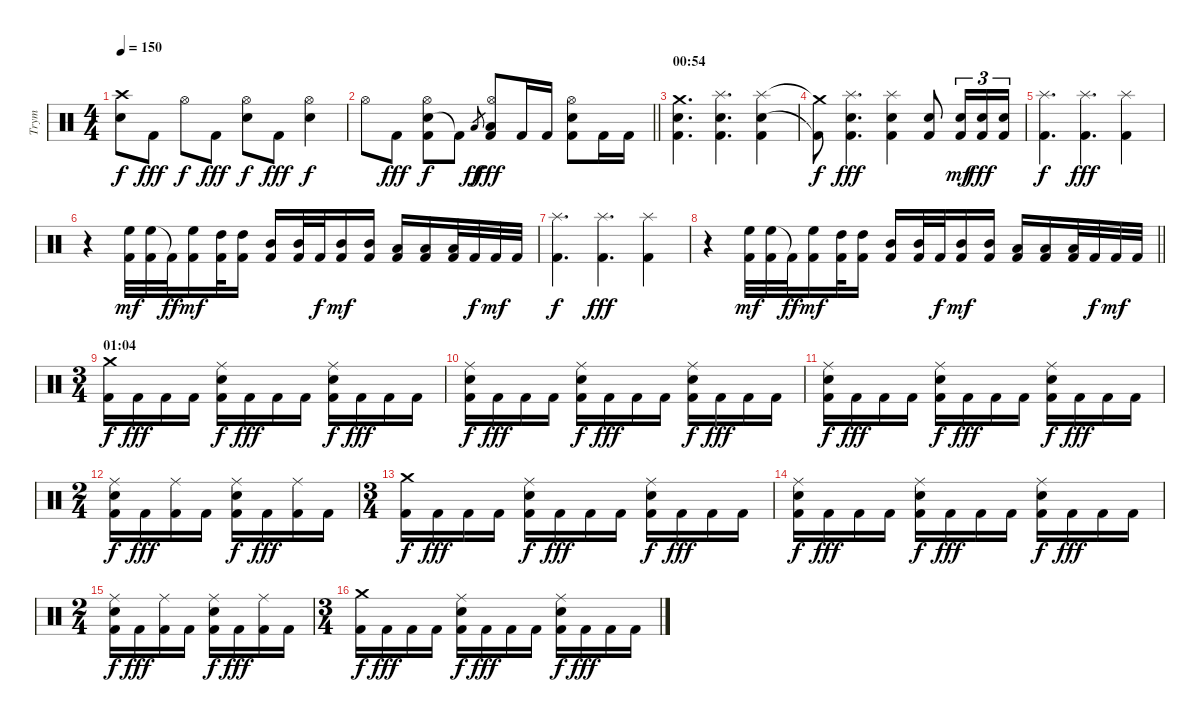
\track ("Trym" "Trym") {instrument percussion}
\staff {score}
\articulation defaults
\ts (4 4)
\tempo 150
\clef neutral
\ks c
("Crash high (hit)" "Snare (hit) 2").8{dy f} "Kick (hit) 2".8{dy fff} "Hi-Hat (open)".8{dy f} "Kick (hit) 2".8{dy fff} ("Snare (hit) 2" "Hi-Hat (open)").8{dy f} "Kick (hit) 2".8{dy fff} ("Snare (hit) 2" "Hi-Hat (open)").4{dy f} |
\barLineRight lightlight "Hi-Hat (open)".8 "Kick (hit) 2".8{dy fff}
("Snare (hit) 2" "Hi-Hat (open)" "Kick (hit) 2").8{dy f} "Kick (hit) 2"{t}.8 "Low Tom (hit)".8{gr dy ff} ("Low Tom (hit)" "Hi-Hat (open)" "Kick (hit) 2").8{dy fff} "Kick (hit) 2".16 "Kick (hit) 2".16 ("Snare (hit) 2" "Hi-Hat (open)" "Kick (hit) 2").8 "Kick (hit) 2".16 "Kick (hit) 2".16 |
\section ("" "00:54")
("Crash medium (hit)" "Snare (hit) 2" "Kick (hit) 2").4{d} ("Splash (hit)" "Snare (hit) 2" "Kick (hit) 2").4{d} ("Splash (hit)" "Snare (hit) 2" "Kick (hit) 2").4 |
("Crash medium (hit)"{t} "Kick (hit) 2"{t}).8{dy f} ("Splash (hit)" "Snare (hit) 2" "Kick (hit) 2").4{d dy fff} ("Splash (hit)" "Snare (hit) 2" "Kick (hit) 2").4 ("Snare (hit) 2" "Kick (hit) 2").8 ("Snare (hit) 2" "Kick (hit) 2").16{tu (3 2) dy mf} ("Snare (hit) 2" "Kick (hit) 2").16{tu (3 2) dy fff} ("Snare (hit) 2" "Kick (hit) 2").16{tu (3 2)} |
("Splash (hit)" "Kick (hit) 2").4{d dy f} ("Splash (hit)" "Kick (hit) 2").4{d dy fff} ("Splash (hit)" "Kick (hit) 2").4 |
r.4 ("High Floor Tom (hit)" "Kick (hit) 2").32{dy mf} ("High Floor Tom (hit)" "Kick (hit) 2").32 "Kick (hit) 2"{t}.32{dy ff} ("High Floor Tom (hit)" "Kick (hit) 2").16{dy mf} ("High Tom (hit)" "Kick (hit) 2").32 ("High Tom (hit)" "Kick (hit) 2").16 ("Mid Tom (hit)" "Kick (hit) 2").16 ("Mid Tom (hit)" "Kick (hit) 2").32 "Kick (hit) 2".32{dy f} ("Mid Tom (hit)" "Kick (hit) 2").16{dy mf} ("Mid Tom (hit)" "Kick (hit) 2").16 ("Low Tom (hit)" "Kick (hit) 2").16 ("Low Tom (hit)" "Kick (hit) 2").16 ("Low Tom (hit)" "Kick (hit) 2").32 "Kick (hit) 2".32{dy f} "Kick (hit) 2".32{dy mf} "Kick (hit) 2".32 |
("Splash (hit)" "Kick (hit) 2").4{d dy f} ("Splash (hit)" "Kick (hit) 2").4{d dy fff} ("Splash (hit)" "Kick (hit) 2").4 |
\barLineRight lightlight
r.4 ("High Floor Tom (hit)" "Kick (hit) 2").32{dy mf} ("High Floor Tom (hit)" "Kick (hit) 2").32 "Kick (hit) 2"{t}.32{dy ff} ("High Floor Tom (hit)" "Kick (hit) 2").16{dy mf} ("High Tom (hit)" "Kick (hit) 2").32 ("High Tom (hit)" "Kick (hit) 2").16 ("Mid Tom (hit)" "Kick (hit) 2").16 ("Mid Tom (hit)" "Kick (hit) 2").32 "Kick (hit) 2".32{dy f} ("Mid Tom (hit)" "Kick (hit) 2").16{dy mf} ("Mid Tom (hit)" "Kick (hit) 2").16 ("Low Tom (hit)" "Kick (hit) 2").16 ("Low Tom (hit)" "Kick (hit) 2").16 ("Low Tom (hit)" "Kick (hit) 2").32 "Kick (hit) 2".32{dy f} "Kick (hit) 2".32{dy mf} "Kick (hit) 2".32 |
\ts (3 4)
\section ("" "01:04")
("Crash medium (hit)" "Kick (hit) 2").16{dy f} "Kick (hit) 2".16{dy fff} "Kick (hit) 2".16 "Kick (hit) 2".16 ("Snare (hit) 2" "Ride (middle)" "Kick (hit) 2").16{dy f} "Kick (hit) 2".16{dy fff} "Kick (hit) 2".16 "Kick (hit) 2".16 ("Snare (hit) 2" "Ride (middle)" "Kick (hit) 2").16{dy f} "Kick (hit) 2".16{dy fff} "Kick (hit) 2".16 "Kick (hit) 2".16 |
("Snare (hit) 2" "Ride (middle)" "Kick (hit) 2").16{dy f} "Kick (hit) 2".16{dy fff} "Kick (hit) 2".16 "Kick (hit) 2".16 ("Snare (hit) 2" "Ride (middle)" "Kick (hit) 2").16{dy f} "Kick (hit) 2".16{dy fff} "Kick (hit) 2".16 "Kick (hit) 2".16 ("Snare (hit) 2" "Ride (middle)" "Kick (hit) 2").16{dy f} "Kick (hit) 2".16{dy fff} "Kick (hit) 2".16 "Kick (hit) 2".16 |
("Snare (hit) 2" "Ride (middle)" "Kick (hit) 2").16{dy f} "Kick (hit) 2".16{dy fff} "Kick (hit) 2".16 "Kick (hit) 2".16 ("Snare (hit) 2" "Ride (middle)" "Kick (hit) 2").16{dy f} "Kick (hit) 2".16{dy fff} "Kick (hit) 2".16 "Kick (hit) 2".16 ("Snare (hit) 2" "Ride (middle)" "Kick (hit) 2").16{dy f} "Kick (hit) 2".16{dy fff} "Kick (hit) 2".16 "Kick (hit) 2".16 |
\ts (2 4)
("Snare (hit) 2" "Ride (middle)" "Kick (hit) 2").16{dy f} "Kick (hit) 2".16{dy fff} ("Ride (middle)" "Kick (hit) 2").16 "Kick (hit) 2".16 ("Snare (hit) 2" "Ride (middle)" "Kick (hit) 2").16{dy f} "Kick (hit) 2".16{dy fff} ("Ride (middle)" "Kick (hit) 2").16 "Kick (hit) 2".16 |
\ts (3 4)
("Crash medium (hit)" "Kick (hit) 2").16{dy f} "Kick (hit) 2".16{dy fff} "Kick (hit) 2".16 "Kick (hit) 2".16 ("Snare (hit) 2" "Ride (middle)" "Kick (hit) 2").16{dy f} "Kick (hit) 2".16{dy fff} "Kick (hit) 2".16 "Kick (hit) 2".16 ("Snare (hit) 2" "Ride (middle)" "Kick (hit) 2").16{dy f} "Kick (hit) 2".16{dy fff} "Kick (hit) 2".16 "Kick (hit) 2".16 |
("Snare (hit) 2" "Ride (middle)" "Kick (hit) 2").16{dy f} "Kick (hit) 2".16{dy fff} "Kick (hit) 2".16 "Kick (hit) 2".16 ("Snare (hit) 2" "Ride (middle)" "Kick (hit) 2").16{dy f} "Kick (hit) 2".16{dy fff} "Kick (hit) 2".16 "Kick (hit) 2".16 ("Snare (hit) 2" "Ride (middle)" "Kick (hit) 2").16{dy f} "Kick (hit) 2".16{dy fff} "Kick (hit) 2".16 "Kick (hit) 2".16 |
\ts (2 4)
("Snare (hit) 2" "Ride (middle)" "Kick (hit) 2").16{dy f} "Kick (hit) 2".16{dy fff} ("Ride (middle)" "Kick (hit) 2").16 "Kick (hit) 2".16 ("Snare (hit) 2" "Ride (middle)" "Kick (hit) 2").16{dy f} "Kick (hit) 2".16{dy fff} ("Ride (middle)" "Kick (hit) 2").16 "Kick (hit) 2".16 |
\ts (3 4)
("Crash medium (hit)" "Kick (hit) 2").16{dy f} "Kick (hit) 2".16{dy fff} "Kick (hit) 2".16 "Kick (hit) 2".16 ("Snare (hit) 2" "Ride (middle)" "Kick (hit) 2").16{dy f} "Kick (hit) 2".16{dy fff} "Kick (hit) 2".16 "Kick (hit) 2".16 ("Snare (hit) 2" "Ride (middle)" "Kick (hit) 2").16{dy f} "Kick (hit) 2".16{dy fff} "Kick (hit) 2".16 "Kick (hit) 2".16
